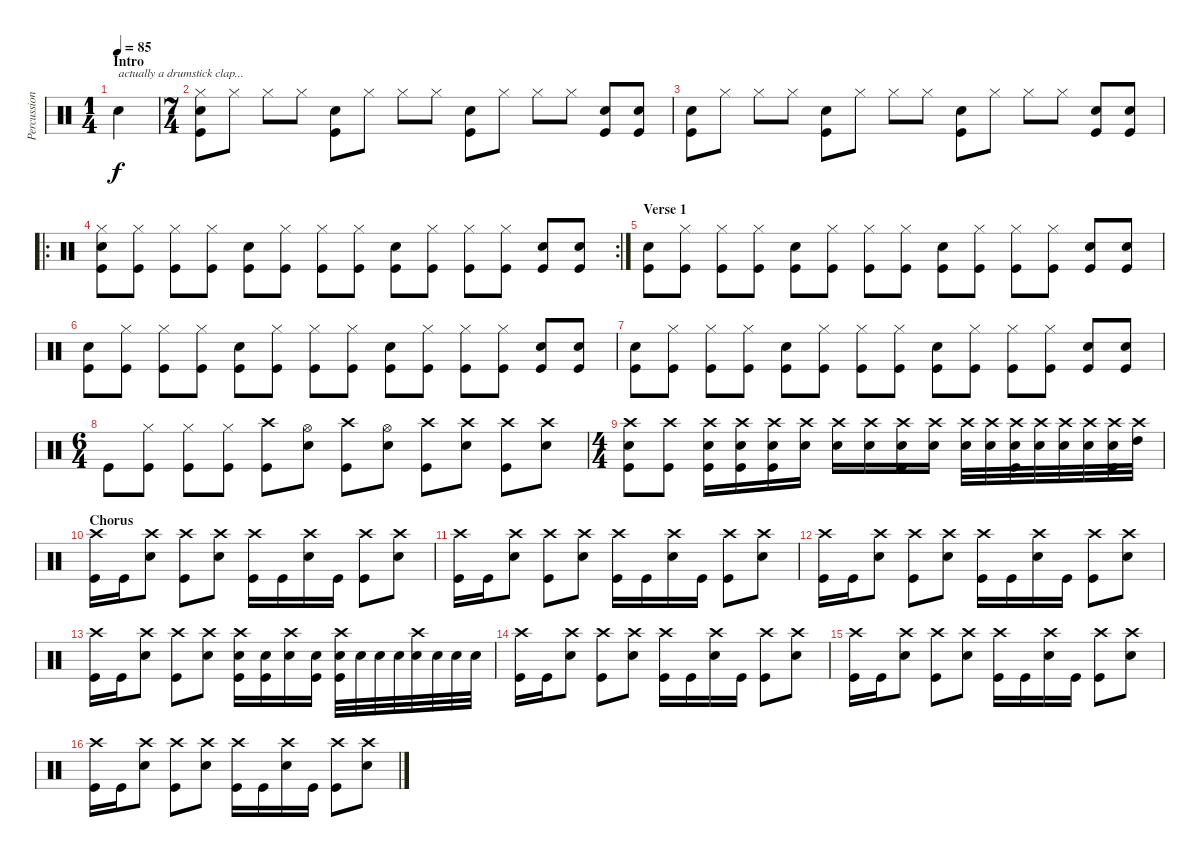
\track ("Percussion" "Percussion") {instrument percussion}
\staff {score}
\articulation defaults
\ts (1 4)
\section ("" "Intro")
\tempo 85
\clef neutral
\ks c "Electric Snare (hit)".4{txt "actually a drumstick clap... " dy f}
|
\ts (7 4)
("Hi-Hat (closed)" "Snare (hit) 2" "Kick (hit)").8 "Hi-Hat (closed)".8 "Hi-Hat (closed)".8 "Hi-Hat (closed)".8 ("Snare (hit) 2" "Kick (hit)").8 "Hi-Hat (closed)".8 "Hi-Hat (closed)".8 "Hi-Hat (closed)".8 ("Snare (hit) 2" "Kick (hit)").8 "Hi-Hat (closed)".8 "Hi-Hat (closed)".8 "Hi-Hat (closed)".8 ("Snare (hit) 2" "Kick (hit)").8 ("Snare (hit) 2" "Kick (hit)").8 |
("Snare (hit) 2" "Kick (hit)").8 "Hi-Hat (closed)".8 "Hi-Hat (closed)".8 "Hi-Hat (closed)".8 ("Snare (hit) 2" "Kick (hit)").8 "Hi-Hat (closed)".8 "Hi-Hat (closed)".8 "Hi-Hat (closed)".8 ("Snare (hit) 2" "Kick (hit)").8 "Hi-Hat (closed)".8 "Hi-Hat (closed)".8 "Hi-Hat (closed)".8 ("Snare (hit) 2" "Kick (hit)").8 ("Snare (hit) 2" "Kick (hit)").8 |
\ro
\rc 2
("Hi-Hat (closed)" "Snare (hit) 2" "Kick (hit)").8 ("Hi-Hat (closed)" "Kick (hit)").8 ("Hi-Hat (closed)" "Kick (hit)").8 ("Hi-Hat (closed)" "Kick (hit)").8 ("Snare (hit) 2" "Kick (hit)").8 ("Hi-Hat (closed)" "Kick (hit)").8 ("Hi-Hat (closed)" "Kick (hit)").8 ("Hi-Hat (closed)" "Kick (hit)").8 ("Snare (hit) 2" "Kick (hit)").8 ("Hi-Hat (closed)" "Kick (hit)").8 ("Hi-Hat (closed)" "Kick (hit)").8 ("Hi-Hat (closed)" "Kick (hit)").8 ("Snare (hit) 2" "Kick (hit)").8 ("Snare (hit) 2" "Kick (hit)").8 |
\section ("" "Verse 1")
("Snare (hit) 2" "Kick (hit)").8 ("Hi-Hat (closed)" "Kick (hit)").8 ("Hi-Hat (closed)" "Kick (hit)").8 ("Hi-Hat (closed)" "Kick (hit)").8 ("Snare (hit) 2" "Kick (hit)").8 ("Hi-Hat (closed)" "Kick (hit)").8 ("Hi-Hat (closed)" "Kick (hit)").8 ("Hi-Hat (closed)" "Kick (hit)").8 ("Snare (hit) 2" "Kick (hit)").8 ("Hi-Hat (closed)" "Kick (hit)").8 ("Hi-Hat (closed)" "Kick (hit)").8 ("Hi-Hat (closed)" "Kick (hit)").8 ("Snare (hit) 2" "Kick (hit)").8 ("Snare (hit) 2" "Kick (hit)").8 |
("Snare (hit) 2" "Kick (hit)").8 ("Hi-Hat (closed)" "Kick (hit)").8 ("Hi-Hat (closed)" "Kick (hit)").8 ("Hi-Hat (closed)" "Kick (hit)").8 ("Snare (hit) 2" "Kick (hit)").8 ("Hi-Hat (closed)" "Kick (hit)").8 ("Hi-Hat (closed)" "Kick (hit)").8 ("Hi-Hat (closed)" "Kick (hit)").8 ("Snare (hit) 2" "Kick (hit)").8 ("Hi-Hat (closed)" "Kick (hit)").8 ("Hi-Hat (closed)" "Kick (hit)").8 ("Hi-Hat (closed)" "Kick (hit)").8 ("Snare (hit) 2" "Kick (hit)").8 ("Snare (hit) 2" "Kick (hit)").8 |
("Snare (hit) 2" "Kick (hit)").8 ("Hi-Hat (closed)" "Kick (hit)").8 ("Hi-Hat (closed)" "Kick (hit)").8 ("Hi-Hat (closed)" "Kick (hit)").8 ("Snare (hit) 2" "Kick (hit)").8 ("Hi-Hat (closed)" "Kick (hit)").8 ("Hi-Hat (closed)" "Kick (hit)").8 ("Hi-Hat (closed)" "Kick (hit)").8 ("Snare (hit) 2" "Kick (hit)").8 ("Hi-Hat (closed)" "Kick (hit)").8 ("Hi-Hat (closed)" "Kick (hit)").8 ("Hi-Hat (closed)" "Kick (hit)").8 ("Snare (hit) 2" "Kick (hit)").8 ("Snare (hit) 2" "Kick (hit)").8 |
\ts (6 4)
"Kick (hit)".8 ("Hi-Hat (closed)" "Kick (hit)").8 ("Hi-Hat (closed)" "Kick (hit)").8 ("Hi-Hat (closed)" "Kick (hit)").8 ("Crash high (hit)" "Kick (hit)").8 ("Hi-Hat (open)" "Snare (hit) 2").8 ("Crash high (hit)" "Kick (hit)").8 ("Hi-Hat (open)" "Snare (hit) 2").8 ("Crash high (hit)" "Kick (hit)").8 ("Crash high (hit)" "Snare (hit) 2").8 ("Crash high (hit)" "Kick (hit)").8 ("Crash high (hit)" "Snare (hit) 2").8 |
\ts (4 4)
("Crash high (hit)" "Snare (hit) 2" "Kick (hit)").8 ("Crash high (hit)" "Kick (hit)").8 ("Crash high (hit)" "Snare (hit) 2" "Kick (hit)").16 ("Crash high (hit)" "Snare (hit) 2" "Kick (hit)").16 ("Crash high (hit)" "Snare (hit) 2" "Kick (hit)").16 ("Crash high (hit)" "Snare (hit) 2").16 ("Crash high (hit)" "Snare (hit) 2").16 ("Crash high (hit)" "Snare (hit) 2").16 ("Crash high (hit)" "Snare (hit) 2" "Kick (hit)").16 ("Crash high (hit)" "Snare (hit) 2").16 ("Crash high (hit)" "Snare (hit) 2").32 ("Crash high (hit)" "Snare (hit) 2").32 ("Crash high (hit)" "Snare (hit) 2" "Kick (hit)").32 ("Crash high (hit)" "Snare (hit) 2").32 ("Crash high (hit)" "Snare (hit) 2").32 ("Crash high (hit)" "Snare (hit) 2").32 ("Crash high (hit)" "Snare (hit) 2" "Kick (hit)").32 ("Crash high (hit)" "High Tom (hit)").32 |
\section ("" "Chorus")
("Crash high (hit)" "Kick (hit)").16 "Kick (hit)".16 ("Crash high (hit)" "Snare (hit) 2").8 ("Crash high (hit)" "Kick (hit)").8 ("Crash high (hit)" "Snare (hit) 2").8 ("Crash high (hit)" "Kick (hit)").16 "Kick (hit)".16 ("Crash high (hit)" "Snare (hit) 2").16 "Kick (hit)".16 ("Crash high (hit)" "Kick (hit)").8 ("Crash high (hit)" "Snare (hit) 2").8 |
("Crash high (hit)" "Kick (hit)").16 "Kick (hit)".16 ("Crash high (hit)" "Snare (hit) 2").8 ("Crash high (hit)" "Kick (hit)").8 ("Crash high (hit)" "Snare (hit) 2").8 ("Crash high (hit)" "Kick (hit)").16 "Kick (hit)".16 ("Crash high (hit)" "Snare (hit) 2").16 "Kick (hit)".16 ("Crash high (hit)" "Kick (hit)").8 ("Crash high (hit)" "Snare (hit) 2").8 |
("Crash high (hit)" "Kick (hit)").16 "Kick (hit)".16 ("Crash high (hit)" "Snare (hit) 2").8 ("Crash high (hit)" "Kick (hit)").8 ("Crash high (hit)" "Snare (hit) 2").8 ("Crash high (hit)" "Kick (hit)").16 "Kick (hit)".16 ("Crash high (hit)" "Snare (hit) 2").16 "Kick (hit)".16 ("Crash high (hit)" "Kick (hit)").8 ("Crash high (hit)" "Snare (hit) 2").8 |
("Crash high (hit)" "Kick (hit)").16 "Kick (hit)".16 ("Crash high (hit)" "Snare (hit) 2").8 ("Crash high (hit)" "Kick (hit)").8 ("Crash high (hit)" "Snare (hit) 2").8 ("Crash high (hit)" "Snare (hit) 2" "Kick (hit)").16 ("Snare (hit) 2" "Kick (hit)").16 ("Crash high (hit)" "Snare (hit) 2").16 ("Snare (hit) 2" "Kick (hit)").16 ("Crash high (hit)" "Snare (hit) 2" "Kick (hit)").32 "Snare (hit) 2".32 "Snare (hit) 2".32 "Snare (hit) 2".32 ("Crash high (hit)" "Snare (hit) 2").32 "Snare (hit) 2".32 "Snare (hit) 2".32 "Snare (hit) 2".32 |
("Crash high (hit)" "Kick (hit)").16 "Kick (hit)".16 ("Crash high (hit)" "Snare (hit) 2").8 ("Crash high (hit)" "Kick (hit)").8 ("Crash high (hit)" "Snare (hit) 2").8 ("Crash high (hit)" "Kick (hit)").16 "Kick (hit)".16 ("Crash high (hit)" "Snare (hit) 2").16 "Kick (hit)".16 ("Crash high (hit)" "Kick (hit)").8 ("Crash high (hit)" "Snare (hit) 2").8 |
("Crash high (hit)" "Kick (hit)").16 "Kick (hit)".16 ("Crash high (hit)" "Snare (hit) 2").8 ("Crash high (hit)" "Kick (hit)").8 ("Crash high (hit)" "Snare (hit) 2").8 ("Crash high (hit)" "Kick (hit)").16 "Kick (hit)".16 ("Crash high (hit)" "Snare (hit) 2").16 "Kick (hit)".16 ("Crash high (hit)" "Kick (hit)").8 ("Crash high (hit)" "Snare (hit) 2").8 |
("Crash high (hit)" "Kick (hit)").16 "Kick (hit)".16 ("Crash high (hit)" "Snare (hit) 2").8 ("Crash high (hit)" "Kick (hit)").8 ("Crash high (hit)" "Snare (hit) 2").8 ("Crash high (hit)" "Kick (hit)").16 "Kick (hit)".16 ("Crash high (hit)" "Snare (hit) 2").16 "Kick (hit)".16 ("Crash high (hit)" "Kick (hit)").8 ("Crash high (hit)" "Snare (hit) 2").8
